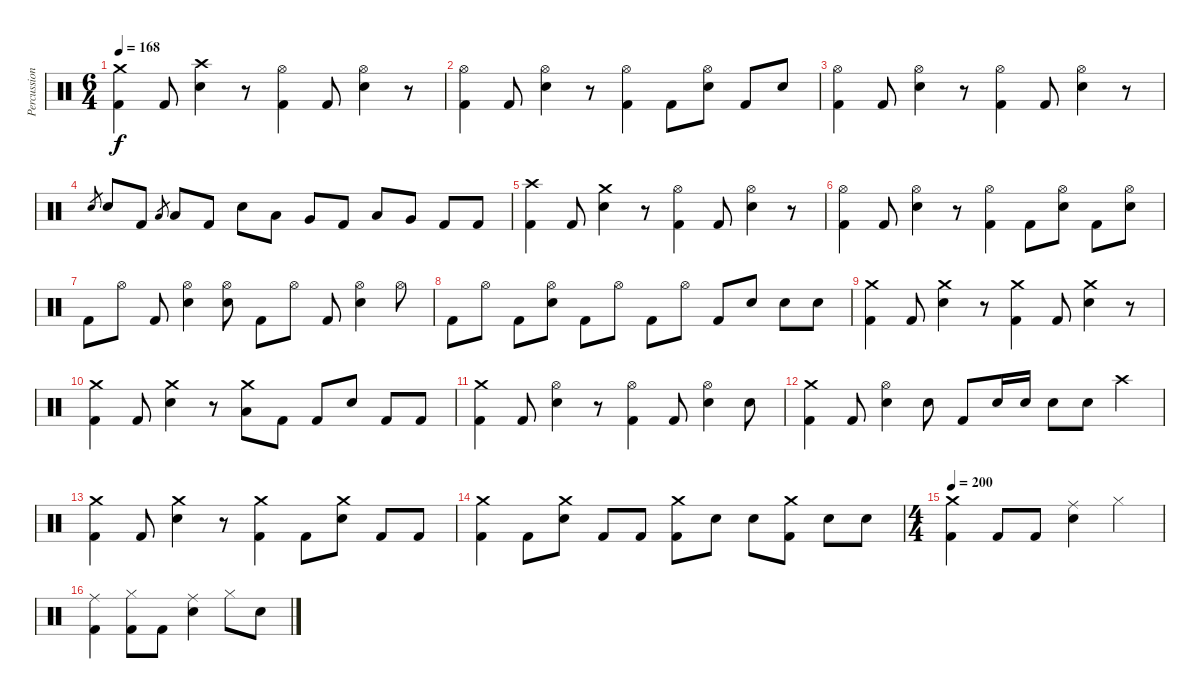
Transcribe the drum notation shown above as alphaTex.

\track ("Percussion" "Percussion") {instrument percussion}
\staff {score}
\articulation defaults
\ts (6 4)
\tempo 168
\clef neutral
\ks c
("Crash medium (hit)" "Kick (hit) 2").4{dy f} "Kick (hit) 2".8 ("Crash high (hit)" "Electric Snare (hit)").4 r.8 ("Hi-Hat (open)" "Kick (hit) 2").4 "Kick (hit) 2".8 ("Hi-Hat (open)" "Electric Snare (hit)").4 r.8 |
("Hi-Hat (open)" "Kick (hit) 2").4 "Kick (hit) 2".8 ("Hi-Hat (open)" "Electric Snare (hit)").4 r.8 ("Hi-Hat (open)" "Kick (hit) 2").4 "Kick (hit) 2".8 ("Hi-Hat (open)" "Electric Snare (hit)").8 "Kick (hit) 2".8 "Electric Snare (hit)".8 |
("Hi-Hat (open)" "Kick (hit) 2").4 "Kick (hit) 2".8 ("Hi-Hat (open)" "Electric Snare (hit)").4 r.8 ("Hi-Hat (open)" "Kick (hit) 2").4 "Kick (hit) 2".8 ("Hi-Hat (open)" "Electric Snare (hit)").4 r.8 |
"Electric Snare (hit)".8{gr} "Electric Snare (hit)".8 "Kick (hit) 2".8 "Low Tom (hit)".8{gr} "Low Tom (hit)".8 "Kick (hit) 2".8 "Electric Snare (hit)".8 "Low Tom (hit)".8 "Very Low Tom (hit)".8 "Kick (hit) 2".8 "Low Tom (hit)".8 "Very Low Tom (hit)".8 "Kick (hit) 2".8 "Kick (hit) 2".8 |
("Crash high (hit)" "Kick (hit) 2").4 "Kick (hit) 2".8 ("Crash medium (hit)" "Electric Snare (hit)").4 r.8 ("Hi-Hat (open)" "Kick (hit) 2").4 "Kick (hit) 2".8 ("Hi-Hat (open)" "Electric Snare (hit)").4 r.8 |
("Hi-Hat (open)" "Kick (hit) 2").4 "Kick (hit) 2".8 ("Hi-Hat (open)" "Electric Snare (hit)").4 r.8 ("Hi-Hat (open)" "Kick (hit) 2").4 "Kick (hit) 2".8 ("Hi-Hat (open)" "Electric Snare (hit)").8 "Kick (hit) 2".8 ("Hi-Hat (open)" "Electric Snare (hit)").8 |
"Kick (hit) 2".8 "Hi-Hat (open)".8 "Kick (hit) 2".8 ("Hi-Hat (open)" "Electric Snare (hit)").4 ("Hi-Hat (open)" "Electric Snare (hit)").8 "Kick (hit) 2".8 "Hi-Hat (open)".8 "Kick (hit) 2".8 ("Hi-Hat (open)" "Electric Snare (hit)").4 "Hi-Hat (open)".8 |
"Kick (hit) 2".8 "Hi-Hat (open)".8 "Kick (hit) 2".8 ("Hi-Hat (open)" "Electric Snare (hit)").8 "Kick (hit) 2".8 "Hi-Hat (open)".8 "Kick (hit) 2".8 "Hi-Hat (open)".8 "Kick (hit) 2".8 "Electric Snare (hit)".8 "Electric Snare (hit)".8 "Electric Snare (hit)".8 |
("Crash medium (hit)" "Kick (hit) 2").4 "Kick (hit) 2".8 ("Crash medium (hit)" "Electric Snare (hit)").4 r.8 ("Crash medium (hit)" "Kick (hit) 2").4 "Kick (hit) 2".8 ("Crash medium (hit)" "Electric Snare (hit)").4 r.8 |
("Crash medium (hit)" "Kick (hit) 2").4 "Kick (hit) 2".8 ("Crash medium (hit)" "Electric Snare (hit)").4 r.8 ("Crash medium (hit)" "Low Tom (hit)").8 "Kick (hit) 2".8 "Kick (hit) 2".8 "Electric Snare (hit)".8 "Kick (hit) 2".8 "Kick (hit) 2".8 |
("Crash medium (hit)" "Kick (hit) 2").4 "Kick (hit) 2".8 ("Hi-Hat (open)" "Electric Snare (hit)").4 r.8 ("Hi-Hat (open)" "Kick (hit) 2").4 "Kick (hit) 2".8 ("Hi-Hat (open)" "Electric Snare (hit)").4 "Electric Snare (hit)".8 |
("Crash medium (hit)" "Kick (hit) 2").4 "Kick (hit) 2".8 ("Hi-Hat (open)" "Electric Snare (hit)").4 "Electric Snare (hit)".8 "Kick (hit) 2".8 "Electric Snare (hit)".16 "Electric Snare (hit)".16 "Electric Snare (hit)".8 "Electric Snare (hit)".8 "Crash high (hit)".4 |
("Crash medium (hit)" "Kick (hit) 2").4 "Kick (hit) 2".8 ("Crash medium (hit)" "Electric Snare (hit)").4 r.8 ("Crash medium (hit)" "Kick (hit) 2").4 "Kick (hit) 2".8 ("Crash medium (hit)" "Electric Snare (hit)").8 "Kick (hit) 2".8 "Kick (hit) 2".8 |
("Crash medium (hit)" "Kick (hit) 2").4 "Kick (hit) 2".8 ("Crash medium (hit)" "Electric Snare (hit)").8 "Kick (hit) 2".8 "Kick (hit) 2".8 ("Crash medium (hit)" "Kick (hit) 2").8 "Electric Snare (hit)".8 "Electric Snare (hit)".8 ("Crash medium (hit)" "Kick (hit) 2").8 "Electric Snare (hit)".8 "Electric Snare (hit)".8 |
\ts (4 4)
\tempo 200
("Crash medium (hit)" "Kick (hit) 2").4 "Kick (hit) 2".8 "Kick (hit) 2".8 ("Ride (middle)" "Electric Snare (hit)").4 "Hi-Hat (closed)".4 |
("Ride (middle)" "Kick (hit) 2").4 ("Hi-Hat (closed)" "Kick (hit) 2").8 "Kick (hit) 2".8 ("Ride (middle)" "Electric Snare (hit)").4 "Hi-Hat (closed)".8 "Electric Snare (hit)".8
